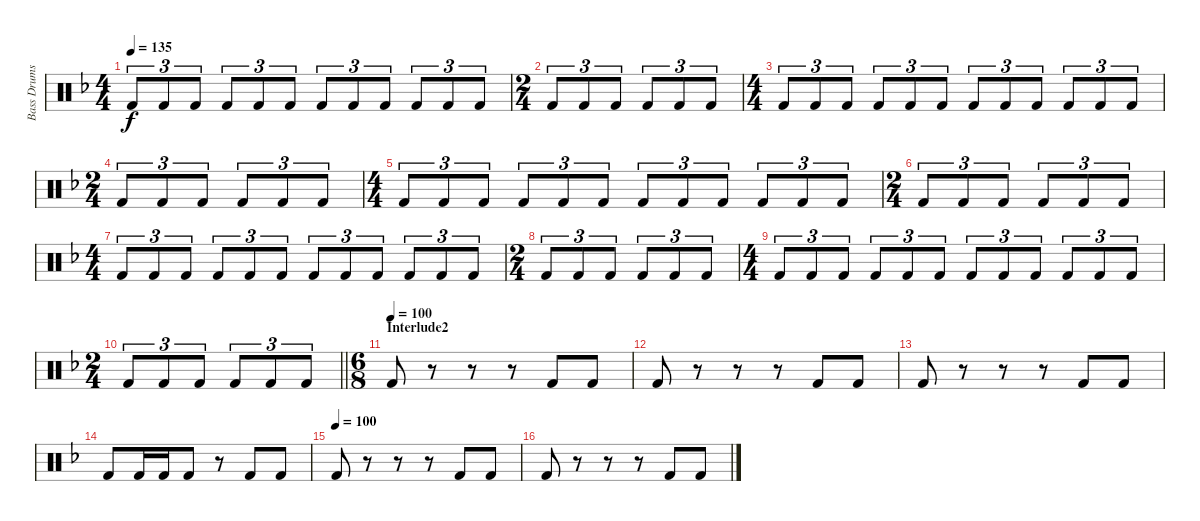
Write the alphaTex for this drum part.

\track ("Bass Drums" "Bass Drums") {instrument percussion}
\staff {score}
\articulation defaults
\ts (4 4)
\tempo 135
\clef neutral
\ks dminor "Kick (hit) 2".8{tu (3 2) dy f} "Kick (hit) 2".8{tu (3 2)} "Kick (hit) 2".8{tu (3 2)} "Kick (hit) 2".8{tu (3 2)} "Kick (hit) 2".8{tu (3 2)} "Kick (hit) 2".8{tu (3 2)} "Kick (hit) 2".8{tu (3 2)} "Kick (hit) 2".8{tu (3 2)} "Kick (hit) 2".8{tu (3 2)} "Kick (hit) 2".8{tu (3 2)} "Kick (hit) 2".8{tu (3 2)} "Kick (hit) 2".8{tu (3 2)}
|
\ts (2 4)
"Kick (hit) 2".8{tu (3 2)} "Kick (hit) 2".8{tu (3 2)} "Kick (hit) 2".8{tu (3 2)} "Kick (hit) 2".8{tu (3 2)} "Kick (hit) 2".8{tu (3 2)} "Kick (hit) 2".8{tu (3 2)} |
\ts (4 4)
"Kick (hit) 2".8{tu (3 2)} "Kick (hit) 2".8{tu (3 2)} "Kick (hit) 2".8{tu (3 2)} "Kick (hit) 2".8{tu (3 2)} "Kick (hit) 2".8{tu (3 2)} "Kick (hit) 2".8{tu (3 2)} "Kick (hit) 2".8{tu (3 2)} "Kick (hit) 2".8{tu (3 2)} "Kick (hit) 2".8{tu (3 2)} "Kick (hit) 2".8{tu (3 2)} "Kick (hit) 2".8{tu (3 2)} "Kick (hit) 2".8{tu (3 2)} |
\ts (2 4)
"Kick (hit) 2".8{tu (3 2)} "Kick (hit) 2".8{tu (3 2)} "Kick (hit) 2".8{tu (3 2)} "Kick (hit) 2".8{tu (3 2)} "Kick (hit) 2".8{tu (3 2)} "Kick (hit) 2".8{tu (3 2)} |
\ts (4 4)
"Kick (hit) 2".8{tu (3 2)} "Kick (hit) 2".8{tu (3 2)} "Kick (hit) 2".8{tu (3 2)} "Kick (hit) 2".8{tu (3 2)} "Kick (hit) 2".8{tu (3 2)} "Kick (hit) 2".8{tu (3 2)} "Kick (hit) 2".8{tu (3 2)} "Kick (hit) 2".8{tu (3 2)} "Kick (hit) 2".8{tu (3 2)} "Kick (hit) 2".8{tu (3 2)} "Kick (hit) 2".8{tu (3 2)} "Kick (hit) 2".8{tu (3 2)} |
\ts (2 4)
"Kick (hit) 2".8{tu (3 2)} "Kick (hit) 2".8{tu (3 2)} "Kick (hit) 2".8{tu (3 2)} "Kick (hit) 2".8{tu (3 2)} "Kick (hit) 2".8{tu (3 2)} "Kick (hit) 2".8{tu (3 2)} |
\ts (4 4)
"Kick (hit) 2".8{tu (3 2)} "Kick (hit) 2".8{tu (3 2)} "Kick (hit) 2".8{tu (3 2)} "Kick (hit) 2".8{tu (3 2)} "Kick (hit) 2".8{tu (3 2)} "Kick (hit) 2".8{tu (3 2)} "Kick (hit) 2".8{tu (3 2)} "Kick (hit) 2".8{tu (3 2)} "Kick (hit) 2".8{tu (3 2)} "Kick (hit) 2".8{tu (3 2)} "Kick (hit) 2".8{tu (3 2)} "Kick (hit) 2".8{tu (3 2)} |
\ts (2 4)
"Kick (hit) 2".8{tu (3 2)} "Kick (hit) 2".8{tu (3 2)} "Kick (hit) 2".8{tu (3 2)} "Kick (hit) 2".8{tu (3 2)} "Kick (hit) 2".8{tu (3 2)} "Kick (hit) 2".8{tu (3 2)} |
\ts (4 4)
"Kick (hit) 2".8{tu (3 2)} "Kick (hit) 2".8{tu (3 2)} "Kick (hit) 2".8{tu (3 2)} "Kick (hit) 2".8{tu (3 2)} "Kick (hit) 2".8{tu (3 2)} "Kick (hit) 2".8{tu (3 2)} "Kick (hit) 2".8{tu (3 2)} "Kick (hit) 2".8{tu (3 2)} "Kick (hit) 2".8{tu (3 2)} "Kick (hit) 2".8{tu (3 2)} "Kick (hit) 2".8{tu (3 2)} "Kick (hit) 2".8{tu (3 2)} |
\ts (2 4)
\barLineRight lightlight "Kick (hit) 2".8{tu (3 2)} "Kick (hit) 2".8{tu (3 2)} "Kick (hit) 2".8{tu (3 2)} "Kick (hit) 2".8{tu (3 2)} "Kick (hit) 2".8{tu (3 2)} "Kick (hit) 2".8{tu (3 2)}
|
\ts (6 8)
\section ("" "Interlude2")
\tempo 90
\tempo (100)
"Kick (hit) 2".8 r.8 r.8 r.8 "Kick (hit) 2".8 "Kick (hit) 2".8 |
"Kick (hit) 2".8 r.8 r.8 r.8 "Kick (hit) 2".8 "Kick (hit) 2".8 |
"Kick (hit) 2".8 r.8 r.8 r.8 "Kick (hit) 2".8 "Kick (hit) 2".8 |
"Kick (hit) 2".8 "Kick (hit) 2".16 "Kick (hit) 2".16 "Kick (hit) 2".8 r.8 "Kick (hit) 2".8 "Kick (hit) 2".8 |
\tempo 90
\tempo (100)
"Kick (hit) 2".8 r.8 r.8 r.8 "Kick (hit) 2".8 "Kick (hit) 2".8 |
"Kick (hit) 2".8 r.8 r.8 r.8 "Kick (hit) 2".8 "Kick (hit) 2".8
